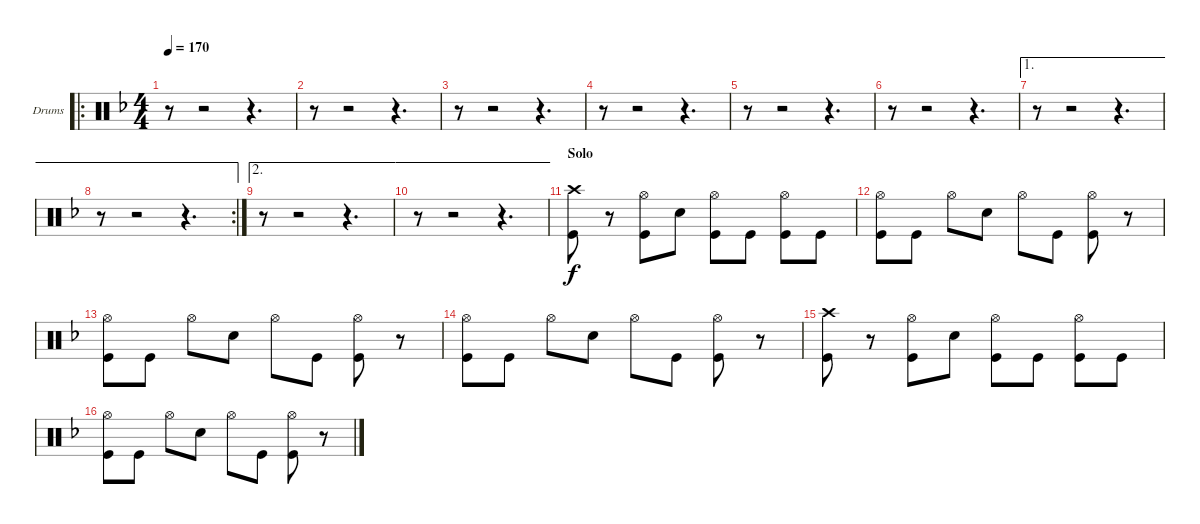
\bracketExtendMode groupsimilarinstruments
\firstSystemTrackNameOrientation horizontal
\otherSystemsTrackNameOrientation horizontal
\track ("Drumkit" "Drums") {instrument percussion}
\staff {score}
\articulation defaults
\ro
\ts (4 4)
\tempo 170
\clef neutral
\scale
0.357798
\ks dminor
r.8{dy fff} r.2 r.4{d} |
\scale
0.321101 r.8 r.2 r.4{d} |
\scale
0.333333 r.8 r.2 r.4{d} |
\scale
0.333333 r.8 r.2 r.4{d} |
\scale
0.333333 r.8 r.2 r.4{d} |
\scale
0.327103 r.8 r.2 r.4{d} |
\ae 1
\scale
0.327103 r.8 r.2 r.4{d} |
\ae 1
\rc 2
\scale
0.345794 r.8 r.2 r.4{d} |
\ae 2
\scale
0.283784 r.8 r.2 r.4{d} |
\ae 2
\scale
0.283784 r.8 r.2 r.4{d} |
\section ("" "Solo")
\scale
0.432432 ("Crash high (hit)" "Kick (hit)").8{dy f} r.8 ("Hi-Hat (open)" "Kick (hit)").8 "Snare (hit) 2".8 ("Hi-Hat (open)" "Kick (hit)").8 "Kick (hit)".8 ("Hi-Hat (open)" "Kick (hit)").8 "Kick (hit)".8 |
\scale
0.333333 ("Hi-Hat (open)" "Kick (hit)").8 "Kick (hit)".8 "Hi-Hat (open)".8 "Snare (hit) 2".8 "Hi-Hat (open)".8 "Kick (hit)".8 ("Hi-Hat (open)" "Kick (hit)").8 r.8 |
\scale
0.333333 ("Hi-Hat (open)" "Kick (hit)").8 "Kick (hit)".8 "Hi-Hat (open)".8 "Snare (hit) 2".8 "Hi-Hat (open)".8 "Kick (hit)".8 ("Hi-Hat (open)" "Kick (hit)").8 r.8 |
\scale
0.333333 ("Hi-Hat (open)" "Kick (hit)").8 "Kick (hit)".8 "Hi-Hat (open)".8 "Snare (hit) 2".8 "Hi-Hat (open)".8 "Kick (hit)".8 ("Hi-Hat (open)" "Kick (hit)").8 r.8 |
\scale
0.333333 ("Crash high (hit)" "Kick (hit)").8 r.8 ("Hi-Hat (open)" "Kick (hit)").8 "Snare (hit) 2".8 ("Hi-Hat (open)" "Kick (hit)").8 "Kick (hit)".8 ("Hi-Hat (open)" "Kick (hit)").8 "Kick (hit)".8 |
\scale
0.333333 ("Hi-Hat (open)" "Kick (hit)").8 "Kick (hit)".8 "Hi-Hat (open)".8 "Snare (hit) 2".8 "Hi-Hat (open)".8 "Kick (hit)".8 ("Hi-Hat (open)" "Kick (hit)").8 r.8
